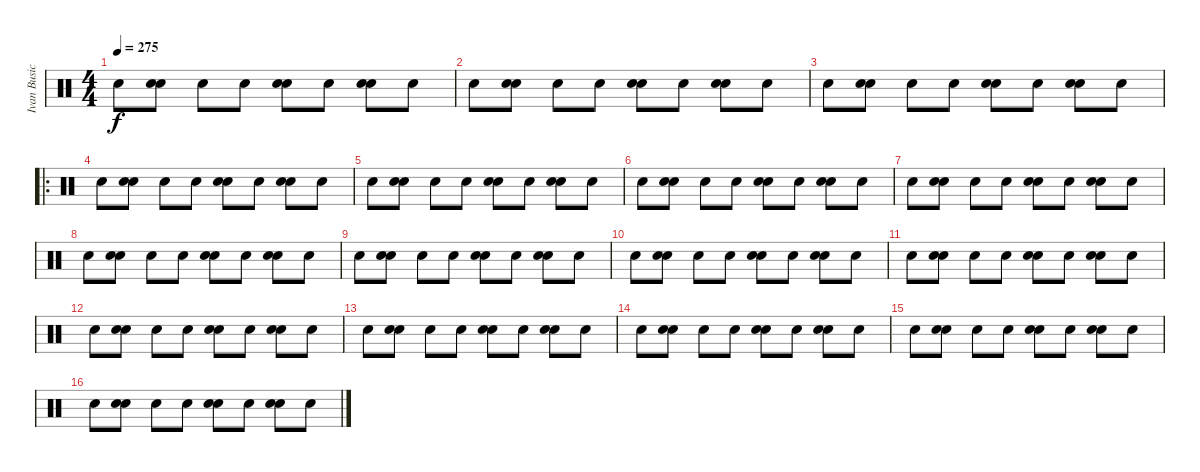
\track ("Ivan Busic" "Ivan Busic") {instrument percussion}
\staff {score}
\articulation defaults
\ts (4 4)
\tempo 275
\clef neutral
\ks c "Electric Snare (hit)".8{dy f}
("Snare (hit) 2" "Electric Snare (hit)").8 "Electric Snare (hit)".8 "Electric Snare (hit)".8 ("Snare (hit) 2" "Electric Snare (hit)").8 "Electric Snare (hit)".8 ("Snare (hit) 2" "Electric Snare (hit)").8 "Electric Snare (hit)".8 |
"Electric Snare (hit)".8 ("Snare (hit) 2" "Electric Snare (hit)").8 "Electric Snare (hit)".8 "Electric Snare (hit)".8 ("Snare (hit) 2" "Electric Snare (hit)").8 "Electric Snare (hit)".8 ("Snare (hit) 2" "Electric Snare (hit)").8 "Electric Snare (hit)".8 |
"Electric Snare (hit)".8 ("Snare (hit) 2" "Electric Snare (hit)").8 "Electric Snare (hit)".8 "Electric Snare (hit)".8 ("Snare (hit) 2" "Electric Snare (hit)").8 "Electric Snare (hit)".8 ("Snare (hit) 2" "Electric Snare (hit)").8 "Electric Snare (hit)".8 |
\ro "Electric Snare (hit)".8
("Snare (hit) 2" "Electric Snare (hit)").8 "Electric Snare (hit)".8 "Electric Snare (hit)".8 ("Snare (hit) 2" "Electric Snare (hit)").8 "Electric Snare (hit)".8 ("Snare (hit) 2" "Electric Snare (hit)").8 "Electric Snare (hit)".8 |
"Electric Snare (hit)".8 ("Snare (hit) 2" "Electric Snare (hit)").8 "Electric Snare (hit)".8 "Electric Snare (hit)".8 ("Snare (hit) 2" "Electric Snare (hit)").8 "Electric Snare (hit)".8 ("Snare (hit) 2" "Electric Snare (hit)").8 "Electric Snare (hit)".8 |
"Electric Snare (hit)".8 ("Snare (hit) 2" "Electric Snare (hit)").8 "Electric Snare (hit)".8 "Electric Snare (hit)".8 ("Snare (hit) 2" "Electric Snare (hit)").8 "Electric Snare (hit)".8 ("Snare (hit) 2" "Electric Snare (hit)").8 "Electric Snare (hit)".8 |
"Electric Snare (hit)".8 ("Snare (hit) 2" "Electric Snare (hit)").8 "Electric Snare (hit)".8 "Electric Snare (hit)".8 ("Snare (hit) 2" "Electric Snare (hit)").8 "Electric Snare (hit)".8 ("Snare (hit) 2" "Electric Snare (hit)").8 "Electric Snare (hit)".8 |
"Electric Snare (hit)".8 ("Snare (hit) 2" "Electric Snare (hit)").8 "Electric Snare (hit)".8 "Electric Snare (hit)".8 ("Snare (hit) 2" "Electric Snare (hit)").8 "Electric Snare (hit)".8 ("Snare (hit) 2" "Electric Snare (hit)").8 "Electric Snare (hit)".8 |
"Electric Snare (hit)".8 ("Snare (hit) 2" "Electric Snare (hit)").8 "Electric Snare (hit)".8 "Electric Snare (hit)".8 ("Snare (hit) 2" "Electric Snare (hit)").8 "Electric Snare (hit)".8 ("Snare (hit) 2" "Electric Snare (hit)").8 "Electric Snare (hit)".8 |
"Electric Snare (hit)".8 ("Snare (hit) 2" "Electric Snare (hit)").8 "Electric Snare (hit)".8 "Electric Snare (hit)".8 ("Snare (hit) 2" "Electric Snare (hit)").8 "Electric Snare (hit)".8 ("Snare (hit) 2" "Electric Snare (hit)").8 "Electric Snare (hit)".8 |
"Electric Snare (hit)".8 ("Snare (hit) 2" "Electric Snare (hit)").8 "Electric Snare (hit)".8 "Electric Snare (hit)".8 ("Snare (hit) 2" "Electric Snare (hit)").8 "Electric Snare (hit)".8 ("Snare (hit) 2" "Electric Snare (hit)").8 "Electric Snare (hit)".8 |
"Electric Snare (hit)".8 ("Snare (hit) 2" "Electric Snare (hit)").8 "Electric Snare (hit)".8 "Electric Snare (hit)".8 ("Snare (hit) 2" "Electric Snare (hit)").8 "Electric Snare (hit)".8 ("Snare (hit) 2" "Electric Snare (hit)").8 "Electric Snare (hit)".8 |
"Electric Snare (hit)".8 ("Snare (hit) 2" "Electric Snare (hit)").8 "Electric Snare (hit)".8 "Electric Snare (hit)".8 ("Snare (hit) 2" "Electric Snare (hit)").8 "Electric Snare (hit)".8 ("Snare (hit) 2" "Electric Snare (hit)").8 "Electric Snare (hit)".8 |
"Electric Snare (hit)".8 ("Snare (hit) 2" "Electric Snare (hit)").8 "Electric Snare (hit)".8 "Electric Snare (hit)".8 ("Snare (hit) 2" "Electric Snare (hit)").8 "Electric Snare (hit)".8 ("Snare (hit) 2" "Electric Snare (hit)").8 "Electric Snare (hit)".8 |
"Electric Snare (hit)".8 ("Snare (hit) 2" "Electric Snare (hit)").8 "Electric Snare (hit)".8 "Electric Snare (hit)".8 ("Snare (hit) 2" "Electric Snare (hit)").8 "Electric Snare (hit)".8 ("Snare (hit) 2" "Electric Snare (hit)").8 "Electric Snare (hit)".8 |
"Electric Snare (hit)".8 ("Snare (hit) 2" "Electric Snare (hit)").8 "Electric Snare (hit)".8 "Electric Snare (hit)".8 ("Snare (hit) 2" "Electric Snare (hit)").8 "Electric Snare (hit)".8 ("Snare (hit) 2" "Electric Snare (hit)").8 "Electric Snare (hit)".8
